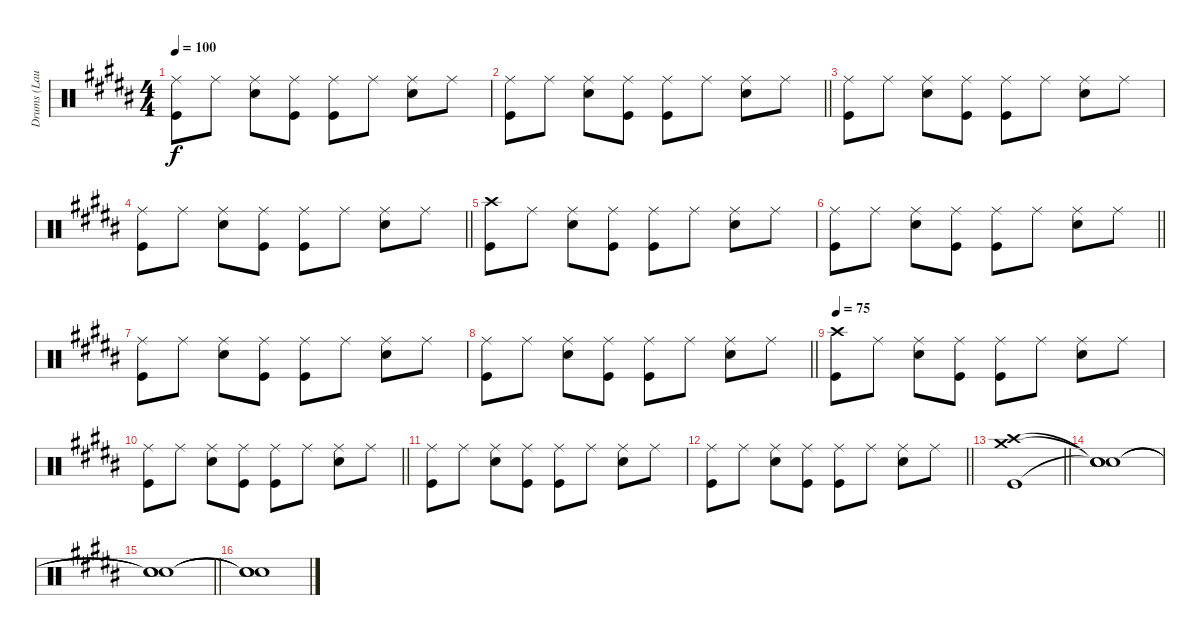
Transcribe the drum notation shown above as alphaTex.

\track ("Drums (Laust Sonne)" "Drums (Lau") {instrument percussion}
\staff {score}
\articulation defaults
\ts (4 4)
\tempo 100
\clef neutral
\ks b
("Ride (middle)" "Kick (hit)").8{dy f} "Ride (middle)".8 ("Ride (middle)" "Snare (hit) 2").8 ("Ride (middle)" "Kick (hit)").8 ("Ride (middle)" "Kick (hit)").8 "Ride (middle)".8 ("Ride (middle)" "Snare (hit) 2").8 "Ride (middle)".8 |
\barLineRight lightlight
("Ride (middle)" "Kick (hit)").8 "Ride (middle)".8 ("Ride (middle)" "Snare (hit) 2").8 ("Ride (middle)" "Kick (hit)").8 ("Ride (middle)" "Kick (hit)").8 "Ride (middle)".8 ("Ride (middle)" "Snare (hit) 2").8 "Ride (middle)".8 |
("Ride (middle)" "Kick (hit)").8 "Ride (middle)".8 ("Ride (middle)" "Snare (hit) 2").8 ("Ride (middle)" "Kick (hit)").8 ("Ride (middle)" "Kick (hit)").8 "Ride (middle)".8 ("Ride (middle)" "Snare (hit) 2").8 "Ride (middle)".8 |
\barLineRight lightlight
("Ride (middle)" "Kick (hit)").8 "Ride (middle)".8 ("Ride (middle)" "Snare (hit) 2").8 ("Ride (middle)" "Kick (hit)").8 ("Ride (middle)" "Kick (hit)").8 "Ride (middle)".8 ("Ride (middle)" "Snare (hit) 2").8 "Ride (middle)".8 |
("Crash high (hit)" "Kick (hit)").8 "Ride (middle)".8 ("Ride (middle)" "Snare (hit) 2").8 ("Ride (middle)" "Kick (hit)").8 ("Ride (middle)" "Kick (hit)").8 "Ride (middle)".8 ("Ride (middle)" "Snare (hit) 2").8 "Ride (middle)".8 |
\barLineRight lightlight
("Ride (middle)" "Kick (hit)").8 "Ride (middle)".8 ("Ride (middle)" "Snare (hit) 2").8 ("Ride (middle)" "Kick (hit)").8 ("Ride (middle)" "Kick (hit)").8 "Ride (middle)".8 ("Ride (middle)" "Snare (hit) 2").8 "Ride (middle)".8 |
("Ride (middle)" "Kick (hit)").8 "Ride (middle)".8 ("Ride (middle)" "Snare (hit) 2").8 ("Ride (middle)" "Kick (hit)").8 ("Ride (middle)" "Kick (hit)").8 "Ride (middle)".8 ("Ride (middle)" "Snare (hit) 2").8 "Ride (middle)".8 |
\barLineRight lightlight
("Ride (middle)" "Kick (hit)").8 "Ride (middle)".8 ("Ride (middle)" "Snare (hit) 2").8 ("Ride (middle)" "Kick (hit)").8 ("Ride (middle)" "Kick (hit)").8 "Ride (middle)".8 ("Ride (middle)" "Snare (hit) 2").8 "Ride (middle)".8 |
\tempo 75
("Crash high (hit)" "Kick (hit)").8 "Ride (middle)".8 ("Ride (middle)" "Snare (hit) 2").8 ("Ride (middle)" "Kick (hit)").8 ("Ride (middle)" "Kick (hit)").8 "Ride (middle)".8 ("Ride (middle)" "Snare (hit) 2").8 "Ride (middle)".8 |
\barLineRight lightlight
("Ride (middle)" "Kick (hit)").8 "Ride (middle)".8 ("Ride (middle)" "Snare (hit) 2").8 ("Ride (middle)" "Kick (hit)").8 ("Ride (middle)" "Kick (hit)").8 "Ride (middle)".8 ("Ride (middle)" "Snare (hit) 2").8 "Ride (middle)".8 |
("Ride (middle)" "Kick (hit)").8 "Ride (middle)".8 ("Ride (middle)" "Snare (hit) 2").8 ("Ride (middle)" "Kick (hit)").8 ("Ride (middle)" "Kick (hit)").8 "Ride (middle)".8 ("Ride (middle)" "Snare (hit) 2").8 "Ride (middle)".8 |
\barLineRight lightlight
("Ride (middle)" "Kick (hit)").8 "Ride (middle)".8 ("Ride (middle)" "Snare (hit) 2").8 ("Ride (middle)" "Kick (hit)").8 ("Ride (middle)" "Kick (hit)").8 "Ride (middle)".8 ("Ride (middle)" "Snare (hit) 2").8 "Ride (middle)".8 |
\barLineRight lightlight
("Crash high (hit)" "Kick (hit)" "Crash medium (hit)").1 |
("Snare (hit)"{t} "Snare (hit)"{t} "Snare (hit)"{t}).1 |
\barLineRight lightlight
("Snare (hit)"{t} "Snare (hit)"{t} "Snare (hit)"{t}).1 |
("Snare (hit)"{t} "Snare (hit)"{t} "Snare (hit)"{t}).1
